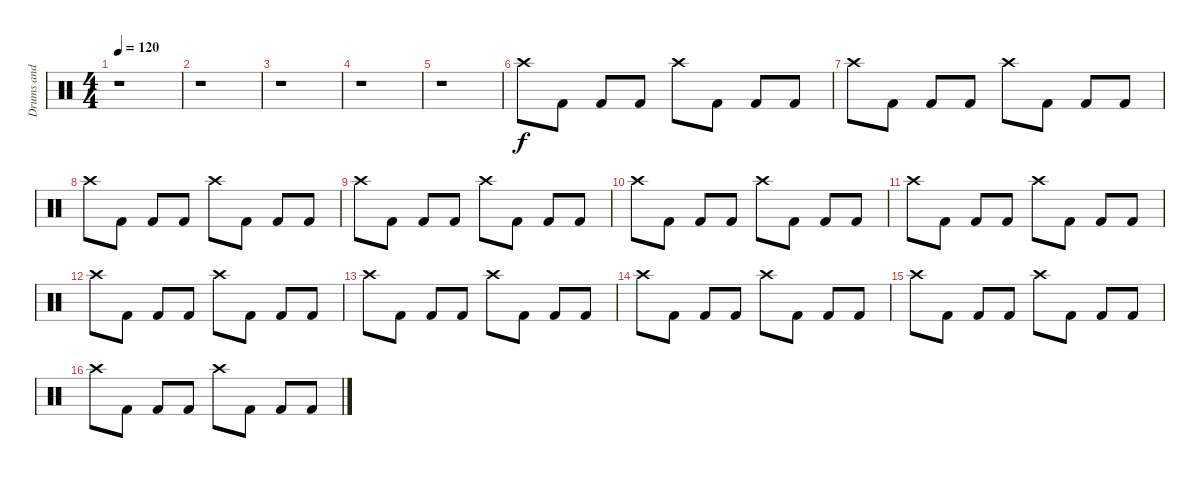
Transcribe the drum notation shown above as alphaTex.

\track ("Drums and Percussion" "Drums and ") {instrument percussion}
\staff {score}
\articulation defaults
\ts (4 4)
\tempo 120
\clef neutral
\ks c
r.1{dy f} |
r.1 |
r.1 |
r.1 |
r.1 |
"Crash high (hit)".8 "Kick (hit) 2".8 "Kick (hit) 2".8 "Kick (hit) 2".8 "Crash high (hit)".8 "Kick (hit) 2".8 "Kick (hit) 2".8 "Kick (hit) 2".8 |
"Crash high (hit)".8 "Kick (hit) 2".8 "Kick (hit) 2".8 "Kick (hit) 2".8 "Crash high (hit)".8 "Kick (hit) 2".8 "Kick (hit) 2".8 "Kick (hit) 2".8 |
"Crash high (hit)".8 "Kick (hit) 2".8 "Kick (hit) 2".8 "Kick (hit) 2".8 "Crash high (hit)".8 "Kick (hit) 2".8 "Kick (hit) 2".8 "Kick (hit) 2".8 |
"Crash high (hit)".8 "Kick (hit) 2".8 "Kick (hit) 2".8 "Kick (hit) 2".8 "Crash high (hit)".8 "Kick (hit) 2".8 "Kick (hit) 2".8 "Kick (hit) 2".8 |
"Crash high (hit)".8 "Kick (hit) 2".8 "Kick (hit) 2".8 "Kick (hit) 2".8 "Crash high (hit)".8 "Kick (hit) 2".8 "Kick (hit) 2".8 "Kick (hit) 2".8 |
"Crash high (hit)".8 "Kick (hit) 2".8 "Kick (hit) 2".8 "Kick (hit) 2".8 "Crash high (hit)".8 "Kick (hit) 2".8 "Kick (hit) 2".8 "Kick (hit) 2".8 |
"Crash high (hit)".8 "Kick (hit) 2".8 "Kick (hit) 2".8 "Kick (hit) 2".8 "Crash high (hit)".8 "Kick (hit) 2".8 "Kick (hit) 2".8 "Kick (hit) 2".8 |
"Crash high (hit)".8 "Kick (hit) 2".8 "Kick (hit) 2".8 "Kick (hit) 2".8 "Crash high (hit)".8 "Kick (hit) 2".8 "Kick (hit) 2".8 "Kick (hit) 2".8 |
"Crash high (hit)".8 "Kick (hit) 2".8 "Kick (hit) 2".8 "Kick (hit) 2".8 "Crash high (hit)".8 "Kick (hit) 2".8 "Kick (hit) 2".8 "Kick (hit) 2".8 |
"Crash high (hit)".8 "Kick (hit) 2".8 "Kick (hit) 2".8 "Kick (hit) 2".8 "Crash high (hit)".8 "Kick (hit) 2".8 "Kick (hit) 2".8 "Kick (hit) 2".8 |
"Crash high (hit)".8 "Kick (hit) 2".8 "Kick (hit) 2".8 "Kick (hit) 2".8 "Crash high (hit)".8 "Kick (hit) 2".8 "Kick (hit) 2".8 "Kick (hit) 2".8
